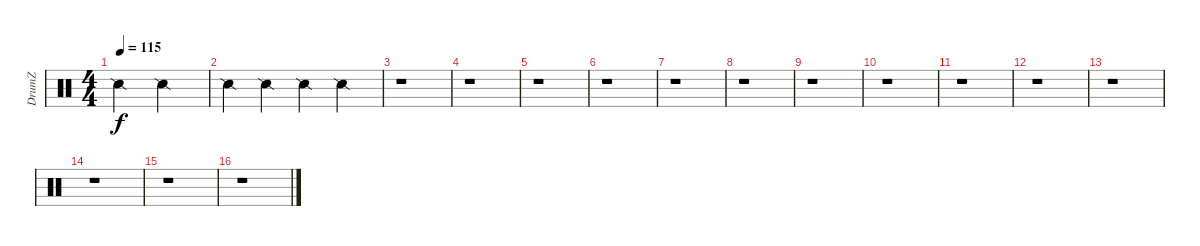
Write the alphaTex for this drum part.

\track ("DrumZ" "DrumZ") {instrument percussion}
\staff {score}
\articulation defaults
\ts (4 4)
\tempo 115
\clef neutral
\ks c "Snare (side stick) 2".2{dy f} "Snare (side stick) 2".2
|
"Snare (side stick) 2".4 "Snare (side stick) 2".4 "Snare (side stick) 2".4 "Snare (side stick) 2".4 |
r.1 |
r.1 |
r.1 |
r.1 |
r.1 |
r.1 |
r.1 |
r.1 |
r.1 |
r.1 |
r.1 |
r.1 |
r.1 |
r.1
